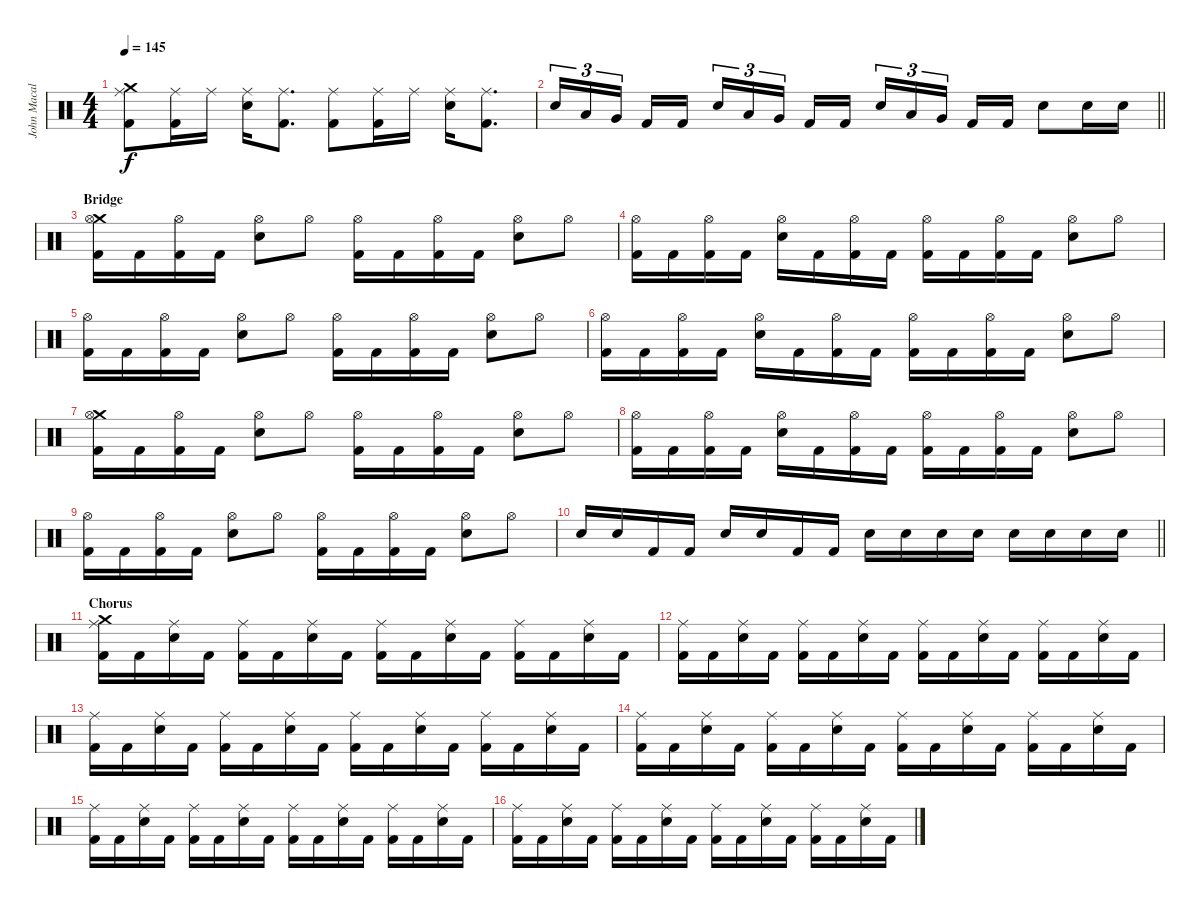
\track ("John Macaluso" "John Macal") {instrument percussion}
\staff {score}
\articulation defaults
\ts (4 4)
\tempo 145
\clef neutral
\ks c
("Crash medium (hit)" "Ride (middle)" "Kick (hit) 2").8{dy f} ("Ride (middle)" "Kick (hit) 2").16 "Ride (middle)".16 ("Ride (middle)" "Snare (hit) 2").16 ("Ride (middle)" "Kick (hit) 2").8{d} ("Ride (middle)" "Kick (hit) 2").8 ("Ride (middle)" "Kick (hit) 2").16 "Ride (middle)".16 ("Ride (middle)" "Snare (hit) 2").16 ("Ride (middle)" "Kick (hit) 2").8{d} |
\barLineRight lightlight "Snare (hit) 2".16{tu (3 2)} "Low Tom (hit)".16{tu (3 2)} "Very Low Tom (hit)".16{tu (3 2) beam splitsecondary} "Kick (hit) 2".16 "Kick (hit) 2".16 "Snare (hit) 2".16{tu (3 2)} "Low Tom (hit)".16{tu (3 2)} "Very Low Tom (hit)".16{tu (3 2) beam splitsecondary} "Kick (hit) 2".16 "Kick (hit) 2".16 "Snare (hit) 2".16{tu (3 2)} "Low Tom (hit)".16{tu (3 2)} "Very Low Tom (hit)".16{tu (3 2) beam splitsecondary} "Kick (hit) 2".16 "Kick (hit) 2".16 "Snare (hit) 2".8 "Snare (hit) 2".16 "Snare (hit) 2".16
|
\section ("" "Bridge")
("Crash medium (hit)" "Hi-Hat (open)" "Kick (hit) 2").16 "Kick (hit) 2".16 ("Hi-Hat (open)" "Kick (hit) 2").16 "Kick (hit) 2".16 ("Hi-Hat (open)" "Snare (hit) 2").8 "Hi-Hat (open)".8 ("Hi-Hat (open)" "Kick (hit) 2").16 "Kick (hit) 2".16 ("Hi-Hat (open)" "Kick (hit) 2").16 "Kick (hit) 2".16 ("Hi-Hat (open)" "Snare (hit) 2").8 "Hi-Hat (open)".8 |
("Hi-Hat (open)" "Kick (hit) 2").16 "Kick (hit) 2".16 ("Hi-Hat (open)" "Kick (hit) 2").16 "Kick (hit) 2".16 ("Hi-Hat (open)" "Snare (hit) 2").16 "Kick (hit) 2".16 ("Hi-Hat (open)" "Kick (hit) 2").16 "Kick (hit) 2".16 ("Hi-Hat (open)" "Kick (hit) 2").16 "Kick (hit) 2".16 ("Hi-Hat (open)" "Kick (hit) 2").16 "Kick (hit) 2".16 ("Hi-Hat (open)" "Snare (hit) 2").8 "Hi-Hat (open)".8 |
("Hi-Hat (open)" "Kick (hit) 2").16 "Kick (hit) 2".16 ("Hi-Hat (open)" "Kick (hit) 2").16 "Kick (hit) 2".16 ("Hi-Hat (open)" "Snare (hit) 2").8 "Hi-Hat (open)".8 ("Hi-Hat (open)" "Kick (hit) 2").16 "Kick (hit) 2".16 ("Hi-Hat (open)" "Kick (hit) 2").16 "Kick (hit) 2".16 ("Hi-Hat (open)" "Snare (hit) 2").8 "Hi-Hat (open)".8 |
("Hi-Hat (open)" "Kick (hit) 2").16 "Kick (hit) 2".16 ("Hi-Hat (open)" "Kick (hit) 2").16 "Kick (hit) 2".16 ("Hi-Hat (open)" "Snare (hit) 2").16 "Kick (hit) 2".16 ("Hi-Hat (open)" "Kick (hit) 2").16 "Kick (hit) 2".16 ("Hi-Hat (open)" "Kick (hit) 2").16 "Kick (hit) 2".16 ("Hi-Hat (open)" "Kick (hit) 2").16 "Kick (hit) 2".16 ("Hi-Hat (open)" "Snare (hit) 2").8 "Hi-Hat (open)".8 |
("Crash medium (hit)" "Hi-Hat (open)" "Kick (hit) 2").16 "Kick (hit) 2".16 ("Hi-Hat (open)" "Kick (hit) 2").16 "Kick (hit) 2".16 ("Hi-Hat (open)" "Snare (hit) 2").8 "Hi-Hat (open)".8 ("Hi-Hat (open)" "Kick (hit) 2").16 "Kick (hit) 2".16 ("Hi-Hat (open)" "Kick (hit) 2").16 "Kick (hit) 2".16 ("Hi-Hat (open)" "Snare (hit) 2").8 "Hi-Hat (open)".8 |
("Hi-Hat (open)" "Kick (hit) 2").16 "Kick (hit) 2".16 ("Hi-Hat (open)" "Kick (hit) 2").16 "Kick (hit) 2".16 ("Hi-Hat (open)" "Snare (hit) 2").16 "Kick (hit) 2".16 ("Hi-Hat (open)" "Kick (hit) 2").16 "Kick (hit) 2".16 ("Hi-Hat (open)" "Kick (hit) 2").16 "Kick (hit) 2".16 ("Hi-Hat (open)" "Kick (hit) 2").16 "Kick (hit) 2".16 ("Hi-Hat (open)" "Snare (hit) 2").8 "Hi-Hat (open)".8 |
("Hi-Hat (open)" "Kick (hit) 2").16 "Kick (hit) 2".16 ("Hi-Hat (open)" "Kick (hit) 2").16 "Kick (hit) 2".16 ("Hi-Hat (open)" "Snare (hit) 2").8 "Hi-Hat (open)".8 ("Hi-Hat (open)" "Kick (hit) 2").16 "Kick (hit) 2".16 ("Hi-Hat (open)" "Kick (hit) 2").16 "Kick (hit) 2".16 ("Hi-Hat (open)" "Snare (hit) 2").8 "Hi-Hat (open)".8 |
\barLineRight lightlight "Snare (hit) 2".16 "Snare (hit) 2".16 "Kick (hit) 2".16 "Kick (hit) 2".16 "Snare (hit) 2".16 "Snare (hit) 2".16 "Kick (hit) 2".16 "Kick (hit) 2".16 "Snare (hit) 2".16 "Snare (hit) 2".16 "Snare (hit) 2".16 "Snare (hit) 2".16 "Snare (hit) 2".16 "Snare (hit) 2".16 "Snare (hit) 2".16 "Snare (hit) 2".16
|
\section ("" "Chorus")
("Crash medium (hit)" "Ride (middle)" "Kick (hit) 2").16 "Kick (hit) 2".16 ("Ride (middle)" "Snare (hit) 2").16 "Kick (hit) 2".16 ("Ride (middle)" "Kick (hit) 2").16 "Kick (hit) 2".16 ("Ride (middle)" "Snare (hit) 2").16 "Kick (hit) 2".16 ("Ride (middle)" "Kick (hit) 2").16 "Kick (hit) 2".16 ("Ride (middle)" "Snare (hit) 2").16 "Kick (hit) 2".16 ("Ride (middle)" "Kick (hit) 2").16 "Kick (hit) 2".16 ("Ride (middle)" "Snare (hit) 2").16 "Kick (hit) 2".16 |
("Ride (middle)" "Kick (hit) 2").16 "Kick (hit) 2".16 ("Ride (middle)" "Snare (hit) 2").16 "Kick (hit) 2".16 ("Ride (middle)" "Kick (hit) 2").16 "Kick (hit) 2".16 ("Ride (middle)" "Snare (hit) 2").16 "Kick (hit) 2".16 ("Ride (middle)" "Kick (hit) 2").16 "Kick (hit) 2".16 ("Ride (middle)" "Snare (hit) 2").16 "Kick (hit) 2".16 ("Ride (middle)" "Kick (hit) 2").16 "Kick (hit) 2".16 ("Ride (middle)" "Snare (hit) 2").16 "Kick (hit) 2".16 |
("Ride (middle)" "Kick (hit) 2").16 "Kick (hit) 2".16 ("Ride (middle)" "Snare (hit) 2").16 "Kick (hit) 2".16 ("Ride (middle)" "Kick (hit) 2").16 "Kick (hit) 2".16 ("Ride (middle)" "Snare (hit) 2").16 "Kick (hit) 2".16 ("Ride (middle)" "Kick (hit) 2").16 "Kick (hit) 2".16 ("Ride (middle)" "Snare (hit) 2").16 "Kick (hit) 2".16 ("Ride (middle)" "Kick (hit) 2").16 "Kick (hit) 2".16 ("Ride (middle)" "Snare (hit) 2").16 "Kick (hit) 2".16 |
("Ride (middle)" "Kick (hit) 2").16 "Kick (hit) 2".16 ("Ride (middle)" "Snare (hit) 2").16 "Kick (hit) 2".16 ("Ride (middle)" "Kick (hit) 2").16 "Kick (hit) 2".16 ("Ride (middle)" "Snare (hit) 2").16 "Kick (hit) 2".16 ("Ride (middle)" "Kick (hit) 2").16 "Kick (hit) 2".16 ("Ride (middle)" "Snare (hit) 2").16 "Kick (hit) 2".16 ("Ride (middle)" "Kick (hit) 2").16 "Kick (hit) 2".16 ("Ride (middle)" "Snare (hit) 2").16 "Kick (hit) 2".16 |
("Ride (middle)" "Kick (hit) 2").16 "Kick (hit) 2".16 ("Ride (middle)" "Snare (hit) 2").16 "Kick (hit) 2".16 ("Ride (middle)" "Kick (hit) 2").16 "Kick (hit) 2".16 ("Ride (middle)" "Snare (hit) 2").16 "Kick (hit) 2".16 ("Ride (middle)" "Kick (hit) 2").16 "Kick (hit) 2".16 ("Ride (middle)" "Snare (hit) 2").16 "Kick (hit) 2".16 ("Ride (middle)" "Kick (hit) 2").16 "Kick (hit) 2".16 ("Ride (middle)" "Snare (hit) 2").16 "Kick (hit) 2".16 |
("Ride (middle)" "Kick (hit) 2").16 "Kick (hit) 2".16 ("Ride (middle)" "Snare (hit) 2").16 "Kick (hit) 2".16 ("Ride (middle)" "Kick (hit) 2").16 "Kick (hit) 2".16 ("Ride (middle)" "Snare (hit) 2").16 "Kick (hit) 2".16 ("Ride (middle)" "Kick (hit) 2").16 "Kick (hit) 2".16 ("Ride (middle)" "Snare (hit) 2").16 "Kick (hit) 2".16 ("Ride (middle)" "Kick (hit) 2").16 "Kick (hit) 2".16 ("Ride (middle)" "Snare (hit) 2").16 "Kick (hit) 2".16
